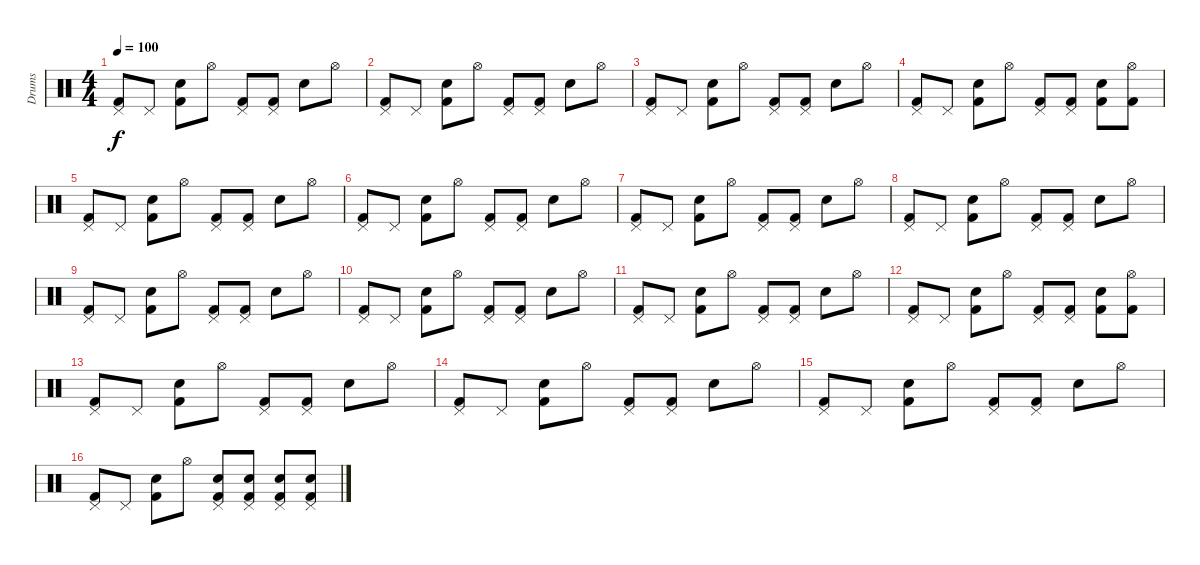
\track ("Drums" "Drums") {instrument percussion}
\staff {score}
\articulation defaults
\ts (4 4)
\tempo 100
\clef neutral
\ks c
("Kick (hit) 2" "Pedal Hi-Hat (hit)").8{dy f} "Pedal Hi-Hat (hit)".8 ("Kick (hit) 2" "Electric Snare (hit)").8 "Hi-Hat (open)".8 ("Kick (hit) 2" "Pedal Hi-Hat (hit)").8 ("Kick (hit) 2" "Pedal Hi-Hat (hit)").8 "Electric Snare (hit)".8 "Hi-Hat (open)".8 |
("Kick (hit) 2" "Pedal Hi-Hat (hit)").8 "Pedal Hi-Hat (hit)".8 ("Kick (hit) 2" "Electric Snare (hit)").8 "Hi-Hat (open)".8 ("Kick (hit) 2" "Pedal Hi-Hat (hit)").8 ("Kick (hit) 2" "Pedal Hi-Hat (hit)").8 "Electric Snare (hit)".8 "Hi-Hat (open)".8 |
("Kick (hit) 2" "Pedal Hi-Hat (hit)").8 "Pedal Hi-Hat (hit)".8 ("Kick (hit) 2" "Electric Snare (hit)").8 "Hi-Hat (open)".8 ("Kick (hit) 2" "Pedal Hi-Hat (hit)").8 ("Kick (hit) 2" "Pedal Hi-Hat (hit)").8 "Electric Snare (hit)".8 "Hi-Hat (open)".8 |
("Kick (hit) 2" "Pedal Hi-Hat (hit)").8 "Pedal Hi-Hat (hit)".8 ("Kick (hit) 2" "Electric Snare (hit)").8 "Hi-Hat (open)".8 ("Kick (hit) 2" "Pedal Hi-Hat (hit)").8 ("Kick (hit) 2" "Pedal Hi-Hat (hit)").8 ("Kick (hit) 2" "Electric Snare (hit)").8 ("Kick (hit) 2" "Hi-Hat (open)").8 |
("Kick (hit) 2" "Pedal Hi-Hat (hit)").8 "Pedal Hi-Hat (hit)".8 ("Kick (hit) 2" "Electric Snare (hit)").8 "Hi-Hat (open)".8 ("Kick (hit) 2" "Pedal Hi-Hat (hit)").8 ("Kick (hit) 2" "Pedal Hi-Hat (hit)").8 "Electric Snare (hit)".8 "Hi-Hat (open)".8 |
("Kick (hit) 2" "Pedal Hi-Hat (hit)").8 "Pedal Hi-Hat (hit)".8 ("Kick (hit) 2" "Electric Snare (hit)").8 "Hi-Hat (open)".8 ("Kick (hit) 2" "Pedal Hi-Hat (hit)").8 ("Kick (hit) 2" "Pedal Hi-Hat (hit)").8 "Electric Snare (hit)".8 "Hi-Hat (open)".8 |
("Kick (hit) 2" "Pedal Hi-Hat (hit)").8 "Pedal Hi-Hat (hit)".8 ("Kick (hit) 2" "Electric Snare (hit)").8 "Hi-Hat (open)".8 ("Kick (hit) 2" "Pedal Hi-Hat (hit)").8 ("Kick (hit) 2" "Pedal Hi-Hat (hit)").8 "Electric Snare (hit)".8 "Hi-Hat (open)".8 |
("Kick (hit) 2" "Pedal Hi-Hat (hit)").8 "Pedal Hi-Hat (hit)".8 ("Kick (hit) 2" "Electric Snare (hit)").8 "Hi-Hat (open)".8 ("Kick (hit) 2" "Pedal Hi-Hat (hit)").8 ("Kick (hit) 2" "Pedal Hi-Hat (hit)").8 "Electric Snare (hit)".8 "Hi-Hat (open)".8 |
("Kick (hit) 2" "Pedal Hi-Hat (hit)").8 "Pedal Hi-Hat (hit)".8 ("Kick (hit) 2" "Electric Snare (hit)").8 "Hi-Hat (open)".8 ("Kick (hit) 2" "Pedal Hi-Hat (hit)").8 ("Kick (hit) 2" "Pedal Hi-Hat (hit)").8 "Electric Snare (hit)".8 "Hi-Hat (open)".8 |
("Kick (hit) 2" "Pedal Hi-Hat (hit)").8 "Pedal Hi-Hat (hit)".8 ("Kick (hit) 2" "Electric Snare (hit)").8 "Hi-Hat (open)".8 ("Kick (hit) 2" "Pedal Hi-Hat (hit)").8 ("Kick (hit) 2" "Pedal Hi-Hat (hit)").8 "Electric Snare (hit)".8 "Hi-Hat (open)".8 |
("Kick (hit) 2" "Pedal Hi-Hat (hit)").8 "Pedal Hi-Hat (hit)".8 ("Kick (hit) 2" "Electric Snare (hit)").8 "Hi-Hat (open)".8 ("Kick (hit) 2" "Pedal Hi-Hat (hit)").8 ("Kick (hit) 2" "Pedal Hi-Hat (hit)").8 "Electric Snare (hit)".8 "Hi-Hat (open)".8 |
("Kick (hit) 2" "Pedal Hi-Hat (hit)").8 "Pedal Hi-Hat (hit)".8 ("Kick (hit) 2" "Electric Snare (hit)").8 "Hi-Hat (open)".8 ("Kick (hit) 2" "Pedal Hi-Hat (hit)").8 ("Kick (hit) 2" "Pedal Hi-Hat (hit)").8 ("Kick (hit) 2" "Electric Snare (hit)").8 ("Kick (hit) 2" "Hi-Hat (open)").8 |
("Kick (hit) 2" "Pedal Hi-Hat (hit)").8 "Pedal Hi-Hat (hit)".8 ("Kick (hit) 2" "Electric Snare (hit)").8 "Hi-Hat (open)".8 ("Kick (hit) 2" "Pedal Hi-Hat (hit)").8 ("Kick (hit) 2" "Pedal Hi-Hat (hit)").8 "Electric Snare (hit)".8 "Hi-Hat (open)".8 |
("Kick (hit) 2" "Pedal Hi-Hat (hit)").8 "Pedal Hi-Hat (hit)".8 ("Kick (hit) 2" "Electric Snare (hit)").8 "Hi-Hat (open)".8 ("Kick (hit) 2" "Pedal Hi-Hat (hit)").8 ("Kick (hit) 2" "Pedal Hi-Hat (hit)").8 "Electric Snare (hit)".8 "Hi-Hat (open)".8 |
("Kick (hit) 2" "Pedal Hi-Hat (hit)").8 "Pedal Hi-Hat (hit)".8 ("Kick (hit) 2" "Electric Snare (hit)").8 "Hi-Hat (open)".8 ("Kick (hit) 2" "Pedal Hi-Hat (hit)").8 ("Kick (hit) 2" "Pedal Hi-Hat (hit)").8 "Electric Snare (hit)".8 "Hi-Hat (open)".8 |
("Kick (hit) 2" "Pedal Hi-Hat (hit)").8 "Pedal Hi-Hat (hit)".8 ("Kick (hit) 2" "Electric Snare (hit)").8 "Hi-Hat (open)".8 ("Kick (hit) 2" "Pedal Hi-Hat (hit)" "Electric Snare (hit)").8 ("Kick (hit) 2" "Pedal Hi-Hat (hit)" "Electric Snare (hit)").8 ("Kick (hit) 2" "Pedal Hi-Hat (hit)" "Electric Snare (hit)").8 ("Kick (hit) 2" "Pedal Hi-Hat (hit)" "Electric Snare (hit)").8
